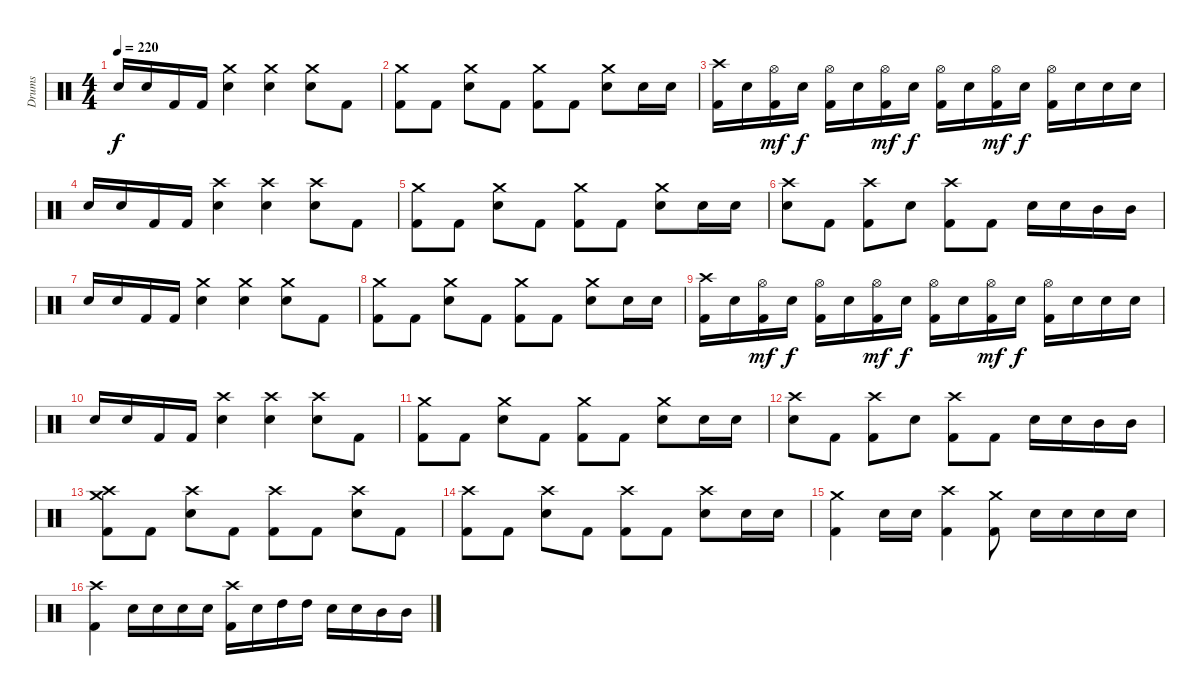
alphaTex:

\track ("Drums" "Drums") {instrument percussion}
\staff {score}
\articulation defaults
\ts (4 4)
\tempo 220
\clef neutral
\ks c "Electric Snare (hit)".16{dy f} "Electric Snare (hit)".16 "Kick (hit) 2".16 "Kick (hit) 2".16
("Crash medium (hit)" "Electric Snare (hit)").4 ("Crash medium (hit)" "Electric Snare (hit)").4 ("Crash medium (hit)" "Electric Snare (hit)").8 "Kick (hit) 2".8 |
("Crash medium (hit)" "Kick (hit) 2").8 "Kick (hit) 2".8 ("Crash medium (hit)" "Electric Snare (hit)").8 "Kick (hit) 2".8 ("Crash medium (hit)" "Kick (hit) 2").8 "Kick (hit) 2".8 ("Crash medium (hit)" "Electric Snare (hit)").8 "Electric Snare (hit)".16 "Electric Snare (hit)".16 |
("Crash high (hit)" "Kick (hit) 2").16 "Electric Snare (hit)".16 ("Hi-Hat (open)" "Kick (hit) 2").16{dy mf} "Electric Snare (hit)".16{dy f} ("Hi-Hat (open)" "Kick (hit) 2").16 "Electric Snare (hit)".16 ("Hi-Hat (open)" "Kick (hit) 2").16{dy mf} "Electric Snare (hit)".16{dy f} ("Hi-Hat (open)" "Kick (hit) 2").16 "Electric Snare (hit)".16 ("Hi-Hat (open)" "Kick (hit) 2").16{dy mf} "Electric Snare (hit)".16{dy f} ("Hi-Hat (open)" "Kick (hit) 2").16 "Electric Snare (hit)".16 "Electric Snare (hit)".16 "Electric Snare (hit)".16 |
"Electric Snare (hit)".16 "Electric Snare (hit)".16 "Kick (hit) 2".16 "Kick (hit) 2".16 ("Crash high (hit)" "Electric Snare (hit)").4 ("Crash high (hit)" "Electric Snare (hit)").4 ("Crash high (hit)" "Electric Snare (hit)").8 "Kick (hit) 2".8 |
("Crash medium (hit)" "Kick (hit) 2").8 "Kick (hit) 2".8 ("Crash medium (hit)" "Electric Snare (hit)").8 "Kick (hit) 2".8 ("Crash medium (hit)" "Kick (hit) 2").8 "Kick (hit) 2".8 ("Crash medium (hit)" "Electric Snare (hit)").8 "Electric Snare (hit)".16 "Electric Snare (hit)".16 |
("Crash high (hit)" "Electric Snare (hit)").8 "Kick (hit) 2".8 ("Crash high (hit)" "Kick (hit) 2").8 "Electric Snare (hit)".8 ("Crash high (hit)" "Kick (hit) 2").8 "Kick (hit) 2".8 "Electric Snare (hit)".16 "Electric Snare (hit)".16 "Mid Tom (hit)".16 "Mid Tom (hit)".16 |
"Electric Snare (hit)".16 "Electric Snare (hit)".16 "Kick (hit) 2".16 "Kick (hit) 2".16 ("Crash medium (hit)" "Electric Snare (hit)").4 ("Crash medium (hit)" "Electric Snare (hit)").4 ("Crash medium (hit)" "Electric Snare (hit)").8 "Kick (hit) 2".8 |
("Crash medium (hit)" "Kick (hit) 2").8 "Kick (hit) 2".8 ("Crash medium (hit)" "Electric Snare (hit)").8 "Kick (hit) 2".8 ("Crash medium (hit)" "Kick (hit) 2").8 "Kick (hit) 2".8 ("Crash medium (hit)" "Electric Snare (hit)").8 "Electric Snare (hit)".16 "Electric Snare (hit)".16 |
("Crash high (hit)" "Kick (hit) 2").16 "Electric Snare (hit)".16 ("Hi-Hat (open)" "Kick (hit) 2").16{dy mf} "Electric Snare (hit)".16{dy f} ("Hi-Hat (open)" "Kick (hit) 2").16 "Electric Snare (hit)".16 ("Hi-Hat (open)" "Kick (hit) 2").16{dy mf} "Electric Snare (hit)".16{dy f} ("Hi-Hat (open)" "Kick (hit) 2").16 "Electric Snare (hit)".16 ("Hi-Hat (open)" "Kick (hit) 2").16{dy mf} "Electric Snare (hit)".16{dy f} ("Hi-Hat (open)" "Kick (hit) 2").16 "Electric Snare (hit)".16 "Electric Snare (hit)".16 "Electric Snare (hit)".16 |
"Electric Snare (hit)".16 "Electric Snare (hit)".16 "Kick (hit) 2".16 "Kick (hit) 2".16 ("Crash high (hit)" "Electric Snare (hit)").4 ("Crash high (hit)" "Electric Snare (hit)").4 ("Crash high (hit)" "Electric Snare (hit)").8 "Kick (hit) 2".8 |
("Crash medium (hit)" "Kick (hit) 2").8 "Kick (hit) 2".8 ("Crash medium (hit)" "Electric Snare (hit)").8 "Kick (hit) 2".8 ("Crash medium (hit)" "Kick (hit) 2").8 "Kick (hit) 2".8 ("Crash medium (hit)" "Electric Snare (hit)").8 "Electric Snare (hit)".16 "Electric Snare (hit)".16 |
("Crash high (hit)" "Electric Snare (hit)").8 "Kick (hit) 2".8 ("Crash high (hit)" "Kick (hit) 2").8 "Electric Snare (hit)".8 ("Crash high (hit)" "Kick (hit) 2").8 "Kick (hit) 2".8 "Electric Snare (hit)".16 "Electric Snare (hit)".16 "Mid Tom (hit)".16 "Mid Tom (hit)".16 |
("Crash medium (hit)" "Crash high (hit)" "Kick (hit) 2").8 "Kick (hit) 2".8 ("Crash high (hit)" "Electric Snare (hit)").8 "Kick (hit) 2".8 ("Crash high (hit)" "Kick (hit) 2").8 "Kick (hit) 2".8 ("Crash high (hit)" "Electric Snare (hit)").8 "Kick (hit) 2".8 |
("Crash high (hit)" "Kick (hit) 2").8 "Kick (hit) 2".8 ("Crash high (hit)" "Electric Snare (hit)").8 "Kick (hit) 2".8 ("Crash high (hit)" "Kick (hit) 2").8 "Kick (hit) 2".8 ("Crash high (hit)" "Electric Snare (hit)").8 "Electric Snare (hit)".16 "Electric Snare (hit)".16 |
("Crash medium (hit)" "Kick (hit) 2").4 "Electric Snare (hit)".16 "Electric Snare (hit)".16 ("Crash high (hit)" "Kick (hit) 2").4 ("Crash medium (hit)" "Kick (hit) 2").8 "Electric Snare (hit)".16 "Electric Snare (hit)".16 "Electric Snare (hit)".16 "Electric Snare (hit)".16 |
("Crash high (hit)" "Kick (hit) 2").4 "Electric Snare (hit)".16 "Electric Snare (hit)".16 "Electric Snare (hit)".16 "Electric Snare (hit)".16 ("Crash high (hit)" "Kick (hit) 2").16 "Electric Snare (hit)".16 "High Tom (hit)".16 "High Tom (hit)".16 "Electric Snare (hit)".16 "Electric Snare (hit)".16 "Mid Tom (hit)".16 "Mid Tom (hit)".16
